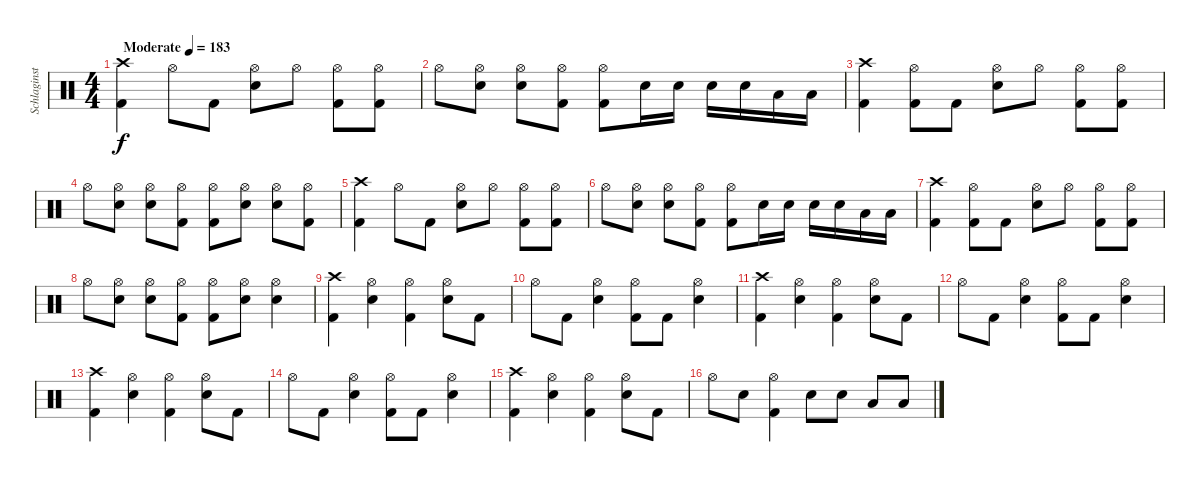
\track ("Schlaginstrumente - Auswahl" "Schlaginst") {instrument percussion}
\staff {score}
\articulation defaults
\ts (4 4)
\tempo (183 "Moderate")
\clef neutral
\ks c
("Crash high (hit)" "Kick (hit) 2").4{dy f} "Hi-Hat (open)".8 "Kick (hit) 2".8 ("Hi-Hat (open)" "Snare (hit) 2").8 "Hi-Hat (open)".8 ("Hi-Hat (open)" "Kick (hit) 2").8 ("Hi-Hat (open)" "Kick (hit) 2").8 |
"Hi-Hat (open)".8 ("Hi-Hat (open)" "Snare (hit) 2").8 ("Hi-Hat (open)" "Snare (hit) 2").8 ("Hi-Hat (open)" "Kick (hit) 2").8 ("Hi-Hat (open)" "Kick (hit) 2").8 "Snare (hit) 2".16 "Snare (hit) 2".16 "Snare (hit) 2".16 "Snare (hit) 2".16 "Low Tom (hit)".16 "Low Tom (hit)".16 |
("Crash high (hit)" "Kick (hit) 2").4 ("Hi-Hat (open)" "Kick (hit) 2").8 "Kick (hit) 2".8 ("Hi-Hat (open)" "Snare (hit) 2").8 "Hi-Hat (open)".8 ("Hi-Hat (open)" "Kick (hit) 2").8 ("Hi-Hat (open)" "Kick (hit) 2").8 |
"Hi-Hat (open)".8 ("Hi-Hat (open)" "Snare (hit) 2").8 ("Hi-Hat (open)" "Snare (hit) 2").8 ("Hi-Hat (open)" "Kick (hit) 2").8 ("Hi-Hat (open)" "Kick (hit) 2").8 ("Hi-Hat (open)" "Snare (hit) 2").8 ("Hi-Hat (open)" "Snare (hit) 2").8 ("Hi-Hat (open)" "Kick (hit) 2").8 |
("Crash high (hit)" "Kick (hit) 2").4 "Hi-Hat (open)".8 "Kick (hit) 2".8 ("Hi-Hat (open)" "Snare (hit) 2").8 "Hi-Hat (open)".8 ("Hi-Hat (open)" "Kick (hit) 2").8 ("Hi-Hat (open)" "Kick (hit) 2").8 |
"Hi-Hat (open)".8 ("Hi-Hat (open)" "Snare (hit) 2").8 ("Hi-Hat (open)" "Snare (hit) 2").8 ("Hi-Hat (open)" "Kick (hit) 2").8 ("Hi-Hat (open)" "Kick (hit) 2").8 "Snare (hit) 2".16 "Snare (hit) 2".16 "Snare (hit) 2".16 "Snare (hit) 2".16 "Low Tom (hit)".16 "Low Tom (hit)".16 |
("Crash high (hit)" "Kick (hit) 2").4 ("Hi-Hat (open)" "Kick (hit) 2").8 "Kick (hit) 2".8 ("Hi-Hat (open)" "Snare (hit) 2").8 "Hi-Hat (open)".8 ("Hi-Hat (open)" "Kick (hit) 2").8 ("Hi-Hat (open)" "Kick (hit) 2").8 |
"Hi-Hat (open)".8 ("Hi-Hat (open)" "Snare (hit) 2").8 ("Hi-Hat (open)" "Snare (hit) 2").8 ("Hi-Hat (open)" "Kick (hit) 2").8 ("Hi-Hat (open)" "Kick (hit) 2").8 ("Hi-Hat (open)" "Snare (hit) 2").8 ("Hi-Hat (open)" "Snare (hit) 2").4 |
("Crash high (hit)" "Kick (hit) 2").4 ("Hi-Hat (open)" "Snare (hit) 2").4 ("Hi-Hat (open)" "Kick (hit) 2").4 ("Hi-Hat (open)" "Snare (hit) 2").8 "Kick (hit) 2".8 |
"Hi-Hat (open)".8 "Kick (hit) 2".8 ("Hi-Hat (open)" "Snare (hit) 2").4 ("Hi-Hat (open)" "Kick (hit) 2").8 "Kick (hit) 2".8 ("Hi-Hat (open)" "Snare (hit) 2").4 |
("Crash high (hit)" "Kick (hit) 2").4 ("Hi-Hat (open)" "Snare (hit) 2").4 ("Hi-Hat (open)" "Kick (hit) 2").4 ("Hi-Hat (open)" "Snare (hit) 2").8 "Kick (hit) 2".8 |
"Hi-Hat (open)".8 "Kick (hit) 2".8 ("Hi-Hat (open)" "Snare (hit) 2").4 ("Hi-Hat (open)" "Kick (hit) 2").8 "Kick (hit) 2".8 ("Hi-Hat (open)" "Snare (hit) 2").4 |
("Crash high (hit)" "Kick (hit) 2").4 ("Hi-Hat (open)" "Snare (hit) 2").4 ("Hi-Hat (open)" "Kick (hit) 2").4 ("Hi-Hat (open)" "Snare (hit) 2").8 "Kick (hit) 2".8 |
"Hi-Hat (open)".8 "Kick (hit) 2".8 ("Hi-Hat (open)" "Snare (hit) 2").4 ("Hi-Hat (open)" "Kick (hit) 2").8 "Kick (hit) 2".8 ("Hi-Hat (open)" "Snare (hit) 2").4 |
("Crash high (hit)" "Kick (hit) 2").4 ("Hi-Hat (open)" "Snare (hit) 2").4 ("Hi-Hat (open)" "Kick (hit) 2").4 ("Hi-Hat (open)" "Snare (hit) 2").8 "Kick (hit) 2".8 |
"Hi-Hat (open)".8 "Snare (hit) 2".8 ("Hi-Hat (open)" "Kick (hit) 2").4 "Snare (hit) 2".8 "Snare (hit) 2".8 "Low Tom (hit)".8 "Low Tom (hit)".8
